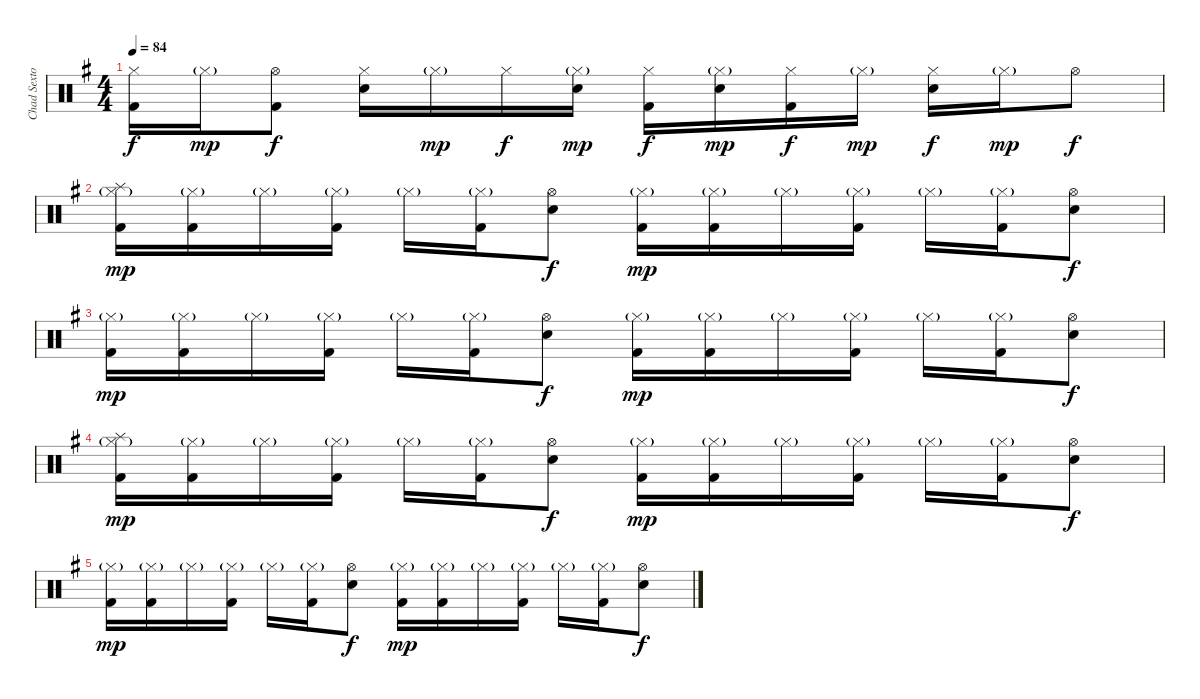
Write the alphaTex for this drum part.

\track ("Chad Sexton (Drums)" "Chad Sexto") {instrument percussion}
\staff {score}
\articulation defaults
\ts (4 4)
\tempo 84
\clef neutral
\ks g
("Hi-Hat (closed)" "Kick (hit) 2").16{dy f} "Hi-Hat (closed)"{g}.16{dy mp} ("Hi-Hat (open)" "Kick (hit) 2").8{dy f} ("Hi-Hat (closed)" "Snare (hit) 2").16 "Hi-Hat (closed)"{g}.16{dy mp} "Hi-Hat (closed)".16{dy f} ("Hi-Hat (closed)"{g} "Snare (hit) 2").16{dy mp} ("Hi-Hat (closed)" "Kick (hit) 2").16{dy f} ("Hi-Hat (closed)"{g} "Snare (hit) 2").16{dy mp} ("Hi-Hat (closed)" "Kick (hit) 2").16{dy f} "Hi-Hat (closed)"{g}.16{dy mp} ("Hi-Hat (closed)" "Snare (hit) 2").16{dy f} "Hi-Hat (closed)"{g}.16{dy mp} "Hi-Hat (open)".8{dy f} |
("Splash (hit)" "Hi-Hat (closed)"{g} "Kick (hit) 2").16{dy mp} ("Hi-Hat (closed)"{g} "Kick (hit) 2").16 "Hi-Hat (closed)"{g}.16 ("Hi-Hat (closed)"{g} "Kick (hit) 2").16 "Hi-Hat (closed)"{g}.16 ("Hi-Hat (closed)"{g} "Kick (hit) 2").16 ("Hi-Hat (open)" "Snare (hit) 2").8{dy f} ("Hi-Hat (closed)"{g} "Kick (hit) 2").16{dy mp} ("Hi-Hat (closed)"{g} "Kick (hit) 2").16 "Hi-Hat (closed)"{g}.16 ("Hi-Hat (closed)"{g} "Kick (hit) 2").16 "Hi-Hat (closed)"{g}.16 ("Hi-Hat (closed)"{g} "Kick (hit) 2").16 ("Hi-Hat (open)" "Snare (hit) 2").8{dy f} |
("Hi-Hat (closed)"{g} "Kick (hit) 2").16{dy mp} ("Hi-Hat (closed)"{g} "Kick (hit) 2").16 "Hi-Hat (closed)"{g}.16 ("Hi-Hat (closed)"{g} "Kick (hit) 2").16 "Hi-Hat (closed)"{g}.16 ("Hi-Hat (closed)"{g} "Kick (hit) 2").16 ("Hi-Hat (open)" "Snare (hit) 2").8{dy f} ("Hi-Hat (closed)"{g} "Kick (hit) 2").16{dy mp} ("Hi-Hat (closed)"{g} "Kick (hit) 2").16 "Hi-Hat (closed)"{g}.16 ("Hi-Hat (closed)"{g} "Kick (hit) 2").16 "Hi-Hat (closed)"{g}.16 ("Hi-Hat (closed)"{g} "Kick (hit) 2").16 ("Hi-Hat (open)" "Snare (hit) 2").8{dy f} |
("Splash (hit)" "Hi-Hat (closed)"{g} "Kick (hit) 2").16{dy mp} ("Hi-Hat (closed)"{g} "Kick (hit) 2").16 "Hi-Hat (closed)"{g}.16 ("Hi-Hat (closed)"{g} "Kick (hit) 2").16 "Hi-Hat (closed)"{g}.16 ("Hi-Hat (closed)"{g} "Kick (hit) 2").16 ("Hi-Hat (open)" "Snare (hit) 2").8{dy f} ("Hi-Hat (closed)"{g} "Kick (hit) 2").16{dy mp} ("Hi-Hat (closed)"{g} "Kick (hit) 2").16 "Hi-Hat (closed)"{g}.16 ("Hi-Hat (closed)"{g} "Kick (hit) 2").16 "Hi-Hat (closed)"{g}.16 ("Hi-Hat (closed)"{g} "Kick (hit) 2").16 ("Hi-Hat (open)" "Snare (hit) 2").8{dy f} |
("Hi-Hat (closed)"{g} "Kick (hit) 2").16{dy mp} ("Hi-Hat (closed)"{g} "Kick (hit) 2").16 "Hi-Hat (closed)"{g}.16 ("Hi-Hat (closed)"{g} "Kick (hit) 2").16 "Hi-Hat (closed)"{g}.16 ("Hi-Hat (closed)"{g} "Kick (hit) 2").16 ("Hi-Hat (open)" "Snare (hit) 2").8{dy f} ("Hi-Hat (closed)"{g} "Kick (hit) 2").16{dy mp} ("Hi-Hat (closed)"{g} "Kick (hit) 2").16 "Hi-Hat (closed)"{g}.16 ("Hi-Hat (closed)"{g} "Kick (hit) 2").16 "Hi-Hat (closed)"{g}.16 ("Hi-Hat (closed)"{g} "Kick (hit) 2").16 ("Hi-Hat (open)" "Snare (hit) 2").8{dy f}
